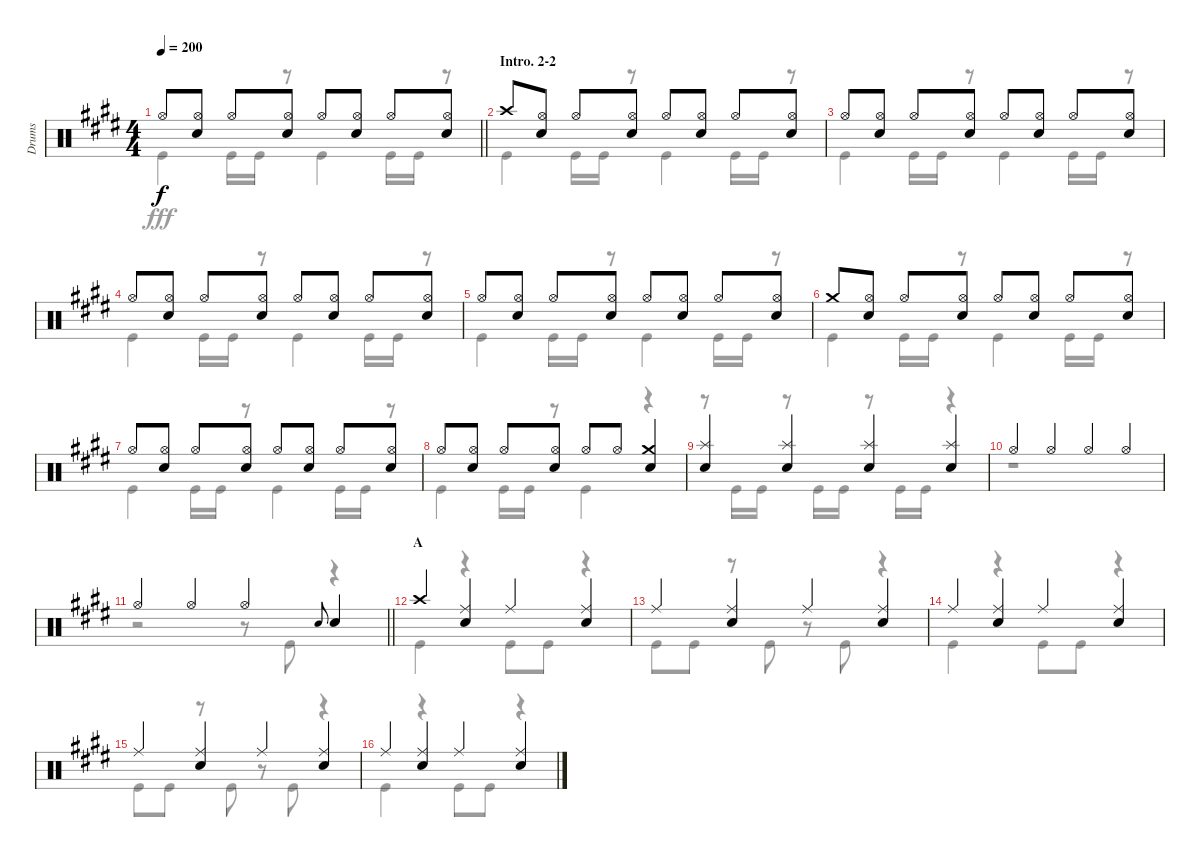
\track ("Drums" "Drums") {instrument percussion}
\staff {score}
\articulation defaults
\voice
\ts (4 4)
\tempo 200
\clef neutral
\barLineRight lightlight
\ks e "Hi-Hat (open)".8{dy f}
("Hi-Hat (open)" "Snare (hit) 2").8 "Hi-Hat (open)".8 ("Hi-Hat (open)" "Snare (hit) 2").8 "Hi-Hat (open)".8 ("Hi-Hat (open)" "Snare (hit) 2").8 "Hi-Hat (open)".8 ("Hi-Hat (open)" "Snare (hit) 2").8 |
\section ("" "Intro. 2-2")
"Crash high (hit)".8 ("Hi-Hat (open)" "Snare (hit) 2").8 "Hi-Hat (open)".8 ("Hi-Hat (open)" "Snare (hit) 2").8 "Hi-Hat (open)".8 ("Hi-Hat (open)" "Snare (hit) 2").8 "Hi-Hat (open)".8 ("Hi-Hat (open)" "Snare (hit) 2").8 |
"Hi-Hat (open)".8 ("Hi-Hat (open)" "Snare (hit) 2").8 "Hi-Hat (open)".8 ("Hi-Hat (open)" "Snare (hit) 2").8 "Hi-Hat (open)".8 ("Hi-Hat (open)" "Snare (hit) 2").8 "Hi-Hat (open)".8 ("Hi-Hat (open)" "Snare (hit) 2").8 |
"Hi-Hat (open)".8 ("Hi-Hat (open)" "Snare (hit) 2").8 "Hi-Hat (open)".8 ("Hi-Hat (open)" "Snare (hit) 2").8 "Hi-Hat (open)".8 ("Hi-Hat (open)" "Snare (hit) 2").8 "Hi-Hat (open)".8 ("Hi-Hat (open)" "Snare (hit) 2").8 |
"Hi-Hat (open)".8 ("Hi-Hat (open)" "Snare (hit) 2").8 "Hi-Hat (open)".8 ("Hi-Hat (open)" "Snare (hit) 2").8 "Hi-Hat (open)".8 ("Hi-Hat (open)" "Snare (hit) 2").8 "Hi-Hat (open)".8 ("Hi-Hat (open)" "Snare (hit) 2").8 |
"Crash medium (hit)".8 ("Hi-Hat (open)" "Snare (hit) 2").8 "Hi-Hat (open)".8 ("Hi-Hat (open)" "Snare (hit) 2").8 "Hi-Hat (open)".8 ("Hi-Hat (open)" "Snare (hit) 2").8 "Hi-Hat (open)".8 ("Hi-Hat (open)" "Snare (hit) 2").8 |
"Hi-Hat (open)".8 ("Hi-Hat (open)" "Snare (hit) 2").8 "Hi-Hat (open)".8 ("Hi-Hat (open)" "Snare (hit) 2").8 "Hi-Hat (open)".8 ("Hi-Hat (open)" "Snare (hit) 2").8 "Hi-Hat (open)".8 ("Hi-Hat (open)" "Snare (hit) 2").8 |
"Hi-Hat (open)".8 ("Hi-Hat (open)" "Snare (hit) 2").8 "Hi-Hat (open)".8 ("Hi-Hat (open)" "Snare (hit) 2").8 "Hi-Hat (open)".8 "Hi-Hat (open)".8 ("Crash medium (hit)" "Snare (hit) 2").4 |
("Splash (hit)" "Snare (hit) 2").4 ("Splash (hit)" "Snare (hit) 2").4 ("Splash (hit)" "Snare (hit) 2").4 ("Splash (hit)" "Snare (hit) 2").4 |
"Hi-Hat (open)".4 "Hi-Hat (open)".4 "Hi-Hat (open)".4 "Hi-Hat (open)".4 |
\barLineRight lightlight "Hi-Hat (open)".4 "Hi-Hat (open)".4 "Hi-Hat (open)".4 "Snare (hit) 2".8{gr onbeat} "Snare (hit) 2".4
|
\section ("" "A")
"Crash high (hit)".4 ("Ride (middle)" "Snare (hit) 2").4 "Ride (middle)".4 ("Ride (middle)" "Snare (hit) 2").4 |
"Ride (middle)".4 ("Ride (middle)" "Snare (hit) 2").4 "Ride (middle)".4 ("Ride (middle)" "Snare (hit) 2").4 |
"Ride (middle)".4 ("Ride (middle)" "Snare (hit) 2").4 "Ride (middle)".4 ("Ride (middle)" "Snare (hit) 2").4 |
"Ride (middle)".4 ("Ride (middle)" "Snare (hit) 2").4 "Ride (middle)".4 ("Ride (middle)" "Snare (hit) 2").4 |
"Ride (middle)".4 ("Ride (middle)" "Snare (hit) 2").4 "Ride (middle)".4 ("Ride (middle)" "Snare (hit) 2").4
\voice
\clef neutral
\ottava regular
\simile none
\barLineRight lightlight
\ks e "Kick (hit)".4{dy fff} "Kick (hit)".16 "Kick (hit)".16
r.8 "Kick (hit)".4 "Kick (hit)".16 "Kick (hit)".16 r.8 |
"Kick (hit)".4 "Kick (hit)".16 "Kick (hit)".16 r.8 "Kick (hit)".4 "Kick (hit)".16 "Kick (hit)".16 r.8 |
"Kick (hit)".4 "Kick (hit)".16 "Kick (hit)".16 r.8 "Kick (hit)".4 "Kick (hit)".16 "Kick (hit)".16 r.8 |
"Kick (hit)".4 "Kick (hit)".16 "Kick (hit)".16 r.8 "Kick (hit)".4 "Kick (hit)".16 "Kick (hit)".16 r.8 |
"Kick (hit)".4 "Kick (hit)".16 "Kick (hit)".16 r.8 "Kick (hit)".4 "Kick (hit)".16 "Kick (hit)".16 r.8 |
"Kick (hit)".4 "Kick (hit)".16 "Kick (hit)".16 r.8 "Kick (hit)".4 "Kick (hit)".16 "Kick (hit)".16 r.8 |
"Kick (hit)".4 "Kick (hit)".16 "Kick (hit)".16 r.8 "Kick (hit)".4 "Kick (hit)".16 "Kick (hit)".16 r.8 |
"Kick (hit)".4 "Kick (hit)".16 "Kick (hit)".16 r.8 "Kick (hit)".4 r.4 |
r.8 "Kick (hit)".16 "Kick (hit)".16 r.8 "Kick (hit)".16 "Kick (hit)".16 r.8 "Kick (hit)".16 "Kick (hit)".16 r.4 |
r.1 |
\barLineRight lightlight
r.2 r.8 "Kick (hit)".8 r.4 |
"Kick (hit)".4 r.4 "Kick (hit)".8 "Kick (hit)".8 r.4 |
"Kick (hit)".8 "Kick (hit)".8 r.8 "Kick (hit)".8 r.8 "Kick (hit)".8 r.4 |
"Kick (hit)".4 r.4 "Kick (hit)".8 "Kick (hit)".8 r.4 |
"Kick (hit)".8 "Kick (hit)".8 r.8 "Kick (hit)".8 r.8 "Kick (hit)".8 r.4 |
"Kick (hit)".4 r.4 "Kick (hit)".8 "Kick (hit)".8 r.4
